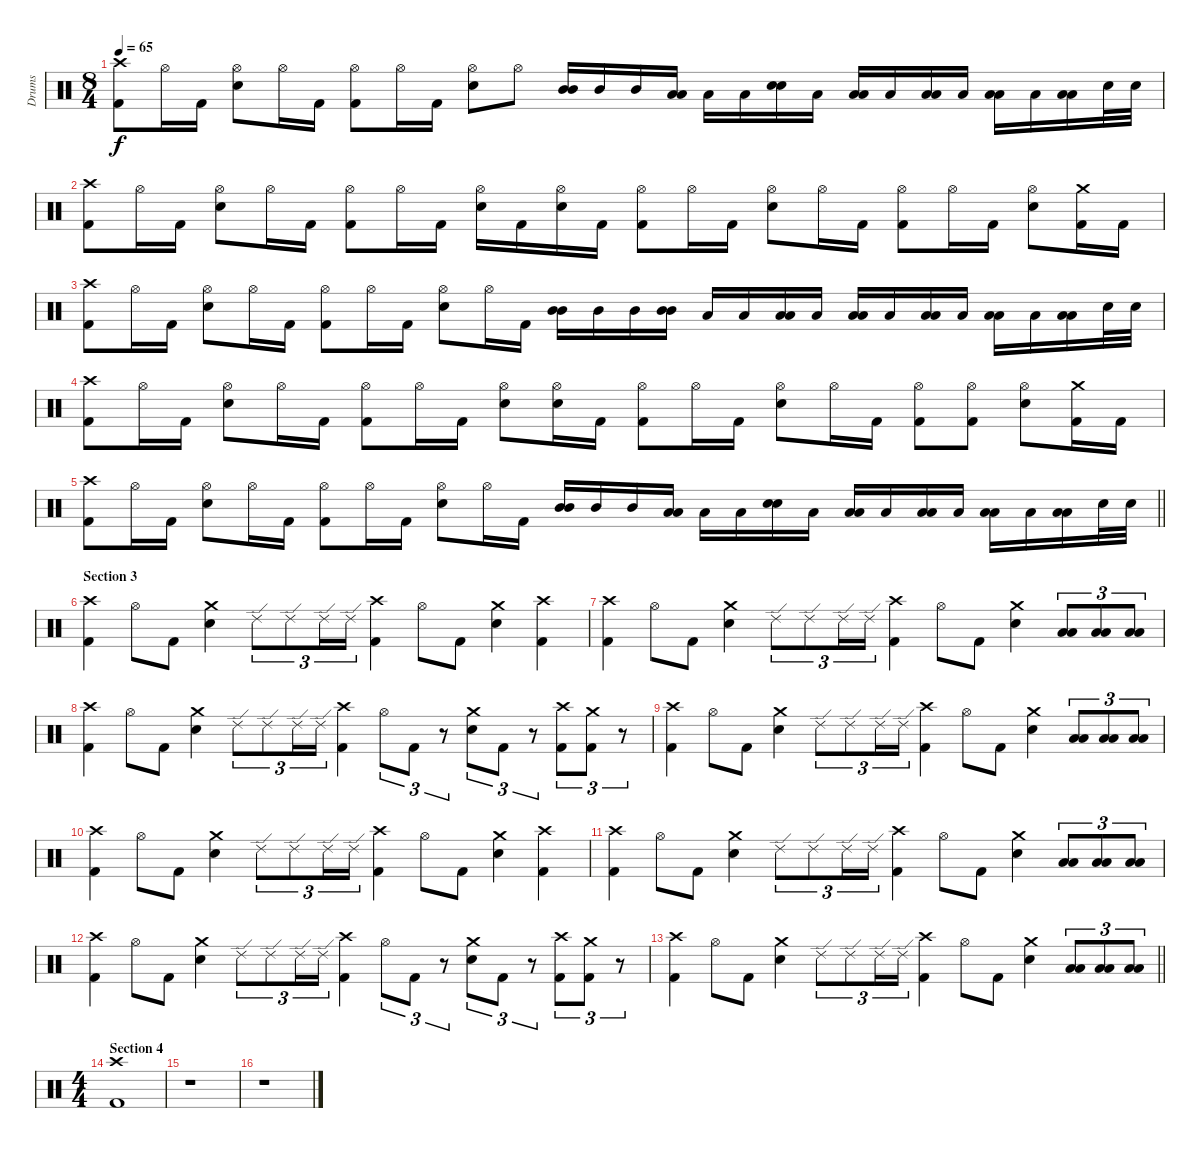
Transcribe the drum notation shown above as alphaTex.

\track ("Drums" "Drums") {instrument percussion}
\staff {score}
\articulation defaults
\ts (8 4)
\tempo 65
\clef neutral
\ks c
("Crash high (hit)" "Kick (hit) 2").8{dy f} "Hi-Hat (open)".16 "Kick (hit) 2".16 ("Hi-Hat (open)" "Electric Snare (hit)").8 "Hi-Hat (open)".16 "Kick (hit) 2".16 ("Hi-Hat (open)" "Kick (hit) 2").8 "Hi-Hat (open)".16 "Kick (hit) 2".16 ("Hi-Hat (open)" "Electric Snare (hit)").8 "Hi-Hat (open)".8 ("Mid Tom (hit)" "Mid Tom (hit)").16{bu 120} "Mid Tom (hit)".16 "Mid Tom (hit)".16 ("Low Tom (hit)" "Low Tom (hit)").16{bu 120} "Low Tom (hit)".16 "Low Tom (hit)".16 ("Electric Snare (hit)" "Electric Snare (hit)").16{bu 120} "Low Tom (hit)".16 ("Low Tom (hit)" "Low Tom (hit)").16{bu 120} "Low Tom (hit)".16 ("Low Tom (hit)" "Low Tom (hit)").16{bu 120} "Low Tom (hit)".16 ("Low Tom (hit)" "Low Tom (hit)").16{bu 120} "Low Tom (hit)".16 ("Low Tom (hit)" "Low Tom (hit)").16{bu 120} "Electric Snare (hit)".32 "Electric Snare (hit)".32 |
("Crash high (hit)" "Kick (hit) 2").8 "Hi-Hat (open)".16 "Kick (hit) 2".16 ("Hi-Hat (open)" "Electric Snare (hit)").8 "Hi-Hat (open)".16 "Kick (hit) 2".16 ("Hi-Hat (open)" "Kick (hit) 2").8 "Hi-Hat (open)".16 "Kick (hit) 2".16 ("Hi-Hat (open)" "Electric Snare (hit)").16 "Kick (hit) 2".16 ("Hi-Hat (open)" "Electric Snare (hit)").16 "Kick (hit) 2".16 ("Hi-Hat (open)" "Kick (hit) 2").8 "Hi-Hat (open)".16 "Kick (hit) 2".16 ("Hi-Hat (open)" "Electric Snare (hit)").8 "Hi-Hat (open)".16 "Kick (hit) 2".16 ("Hi-Hat (open)" "Kick (hit) 2").8 "Hi-Hat (open)".16 "Kick (hit) 2".16 ("Hi-Hat (open)" "Electric Snare (hit)").8 ("Crash medium (hit)" "Kick (hit) 2").16 "Kick (hit) 2".16 |
("Crash high (hit)" "Kick (hit) 2").8 "Hi-Hat (open)".16 "Kick (hit) 2".16 ("Hi-Hat (open)" "Electric Snare (hit)").8 "Hi-Hat (open)".16 "Kick (hit) 2".16 ("Hi-Hat (open)" "Kick (hit) 2").8 "Hi-Hat (open)".16 "Kick (hit) 2".16 ("Hi-Hat (open)" "Electric Snare (hit)").8 "Hi-Hat (open)".16 "Kick (hit) 2".16 ("Mid Tom (hit)" "Mid Tom (hit)").16{bu 120} "Mid Tom (hit)".16 "Mid Tom (hit)".16 ("Mid Tom (hit)" "Mid Tom (hit)").16{bu 120} "Low Tom (hit)".16 "Low Tom (hit)".16 ("Low Tom (hit)" "Low Tom (hit)").16{bu 120} "Low Tom (hit)".16 ("Low Tom (hit)" "Low Tom (hit)").16{bu 120} "Low Tom (hit)".16 ("Low Tom (hit)" "Low Tom (hit)").16{bu 120} "Low Tom (hit)".16 ("Low Tom (hit)" "Low Tom (hit)").16{bu 120} "Low Tom (hit)".16 ("Low Tom (hit)" "Low Tom (hit)").16{bu 120} "Electric Snare (hit)".32 "Electric Snare (hit)".32 |
("Crash high (hit)" "Kick (hit) 2").8 "Hi-Hat (open)".16 "Kick (hit) 2".16 ("Hi-Hat (open)" "Electric Snare (hit)").8 "Hi-Hat (open)".16 "Kick (hit) 2".16 ("Hi-Hat (open)" "Kick (hit) 2").8 "Hi-Hat (open)".16 "Kick (hit) 2".16 ("Hi-Hat (open)" "Electric Snare (hit)").8 ("Hi-Hat (open)" "Electric Snare (hit)").16 "Kick (hit) 2".16 ("Hi-Hat (open)" "Kick (hit) 2").8 "Hi-Hat (open)".16 "Kick (hit) 2".16 ("Hi-Hat (open)" "Electric Snare (hit)").8 "Hi-Hat (open)".16 "Kick (hit) 2".16 ("Hi-Hat (open)" "Kick (hit) 2").8 ("Hi-Hat (open)" "Kick (hit) 2").8 ("Hi-Hat (open)" "Electric Snare (hit)").8 ("Crash medium (hit)" "Kick (hit) 2").16 "Kick (hit) 2".16 |
\barLineRight lightlight
("Crash high (hit)" "Kick (hit) 2").8 "Hi-Hat (open)".16 "Kick (hit) 2".16 ("Hi-Hat (open)" "Electric Snare (hit)").8 "Hi-Hat (open)".16 "Kick (hit) 2".16 ("Hi-Hat (open)" "Kick (hit) 2").8 "Hi-Hat (open)".16 "Kick (hit) 2".16 ("Hi-Hat (open)" "Electric Snare (hit)").8 "Hi-Hat (open)".16 "Kick (hit) 2".16 ("Mid Tom (hit)" "Mid Tom (hit)").16{bu 120} "Mid Tom (hit)".16 "Mid Tom (hit)".16 ("Low Tom (hit)" "Low Tom (hit)").16{bu 120} "Low Tom (hit)".16 "Low Tom (hit)".16 ("Electric Snare (hit)" "Electric Snare (hit)").16{bu 120} "Low Tom (hit)".16 ("Low Tom (hit)" "Low Tom (hit)").16{bu 120} "Low Tom (hit)".16 ("Low Tom (hit)" "Low Tom (hit)").16{bu 120} "Low Tom (hit)".16 ("Low Tom (hit)" "Low Tom (hit)").16{bu 120} "Low Tom (hit)".16 ("Low Tom (hit)" "Low Tom (hit)").16{bu 120} "Electric Snare (hit)".32 "Electric Snare (hit)".32 |
\section ("" "Section 3")
("Crash high (hit)" "Kick (hit) 2").4 "Hi-Hat (open)".8 "Kick (hit) 2".8 ("Crash medium (hit)" "Electric Snare (hit)").4 "Ride (edge) 2".8{tu (3 2)} "Ride (edge) 2".8{tu (3 2)} "Ride (edge) 2".16{tu (3 2)} "Ride (edge) 2".16{tu (3 2)} ("Crash high (hit)" "Kick (hit) 2").4 "Hi-Hat (open)".8 "Kick (hit) 2".8 ("Crash medium (hit)" "Electric Snare (hit)").4 ("Crash high (hit)" "Kick (hit) 2").4 |
("Crash high (hit)" "Kick (hit) 2").4 "Hi-Hat (open)".8 "Kick (hit) 2".8 ("Crash medium (hit)" "Electric Snare (hit)").4 "Ride (edge) 2".8{tu (3 2)} "Ride (edge) 2".8{tu (3 2)} "Ride (edge) 2".16{tu (3 2)} "Ride (edge) 2".16{tu (3 2)} ("Crash high (hit)" "Kick (hit) 2").4 "Hi-Hat (open)".8 "Kick (hit) 2".8 ("Crash medium (hit)" "Electric Snare (hit)").4 ("Low Tom (hit)" "Low Tom (hit)").8{tu (3 2) bu 120} ("Low Tom (hit)" "Low Tom (hit)").8{tu (3 2) bu 120} ("Low Tom (hit)" "Low Tom (hit)").8{tu (3 2) bu 120} |
("Crash high (hit)" "Kick (hit) 2").4 "Hi-Hat (open)".8 "Kick (hit) 2".8 ("Crash medium (hit)" "Electric Snare (hit)").4 "Ride (edge) 2".8{tu (3 2)} "Ride (edge) 2".8{tu (3 2)} "Ride (edge) 2".16{tu (3 2)} "Ride (edge) 2".16{tu (3 2)} ("Crash high (hit)" "Kick (hit) 2").4 "Hi-Hat (open)".8{tu (3 2)} "Kick (hit) 2".8{tu (3 2)} r.8{tu (3 2)} ("Crash medium (hit)" "Electric Snare (hit)").8{tu (3 2)} "Kick (hit) 2".8{tu (3 2)} r.8{tu (3 2)} ("Crash high (hit)" "Kick (hit) 2").8{tu (3 2)} ("Crash medium (hit)" "Kick (hit) 2").8{tu (3 2)} r.8{tu (3 2)} |
("Crash high (hit)" "Kick (hit) 2").4 "Hi-Hat (open)".8 "Kick (hit) 2".8 ("Crash medium (hit)" "Electric Snare (hit)").4 "Ride (edge) 2".8{tu (3 2)} "Ride (edge) 2".8{tu (3 2)} "Ride (edge) 2".16{tu (3 2)} "Ride (edge) 2".16{tu (3 2)} ("Crash high (hit)" "Kick (hit) 2").4 "Hi-Hat (open)".8 "Kick (hit) 2".8 ("Crash medium (hit)" "Electric Snare (hit)").4 ("Low Tom (hit)" "Low Tom (hit)").8{tu (3 2) bu 120} ("Low Tom (hit)" "Low Tom (hit)").8{tu (3 2) bu 120} ("Low Tom (hit)" "Low Tom (hit)").8{tu (3 2) bu 120} |
("Crash high (hit)" "Kick (hit) 2").4 "Hi-Hat (open)".8 "Kick (hit) 2".8 ("Crash medium (hit)" "Electric Snare (hit)").4 "Ride (edge) 2".8{tu (3 2)} "Ride (edge) 2".8{tu (3 2)} "Ride (edge) 2".16{tu (3 2)} "Ride (edge) 2".16{tu (3 2)} ("Crash high (hit)" "Kick (hit) 2").4 "Hi-Hat (open)".8 "Kick (hit) 2".8 ("Crash medium (hit)" "Electric Snare (hit)").4 ("Crash high (hit)" "Kick (hit) 2").4 |
("Crash high (hit)" "Kick (hit) 2").4 "Hi-Hat (open)".8 "Kick (hit) 2".8 ("Crash medium (hit)" "Electric Snare (hit)").4 "Ride (edge) 2".8{tu (3 2)} "Ride (edge) 2".8{tu (3 2)} "Ride (edge) 2".16{tu (3 2)} "Ride (edge) 2".16{tu (3 2)} ("Crash high (hit)" "Kick (hit) 2").4 "Hi-Hat (open)".8 "Kick (hit) 2".8 ("Crash medium (hit)" "Electric Snare (hit)").4 ("Low Tom (hit)" "Low Tom (hit)").8{tu (3 2) bu 120} ("Low Tom (hit)" "Low Tom (hit)").8{tu (3 2) bu 120} ("Low Tom (hit)" "Low Tom (hit)").8{tu (3 2) bu 120} |
("Crash high (hit)" "Kick (hit) 2").4 "Hi-Hat (open)".8 "Kick (hit) 2".8 ("Crash medium (hit)" "Electric Snare (hit)").4 "Ride (edge) 2".8{tu (3 2)} "Ride (edge) 2".8{tu (3 2)} "Ride (edge) 2".16{tu (3 2)} "Ride (edge) 2".16{tu (3 2)} ("Crash high (hit)" "Kick (hit) 2").4 "Hi-Hat (open)".8{tu (3 2)} "Kick (hit) 2".8{tu (3 2)} r.8{tu (3 2)} ("Crash medium (hit)" "Electric Snare (hit)").8{tu (3 2)} "Kick (hit) 2".8{tu (3 2)} r.8{tu (3 2)} ("Crash high (hit)" "Kick (hit) 2").8{tu (3 2)} ("Crash medium (hit)" "Kick (hit) 2").8{tu (3 2)} r.8{tu (3 2)} |
\barLineRight lightlight
("Crash high (hit)" "Kick (hit) 2").4 "Hi-Hat (open)".8 "Kick (hit) 2".8 ("Crash medium (hit)" "Electric Snare (hit)").4 "Ride (edge) 2".8{tu (3 2)} "Ride (edge) 2".8{tu (3 2)} "Ride (edge) 2".16{tu (3 2)} "Ride (edge) 2".16{tu (3 2)} ("Crash high (hit)" "Kick (hit) 2").4 "Hi-Hat (open)".8 "Kick (hit) 2".8 ("Crash medium (hit)" "Electric Snare (hit)").4 ("Low Tom (hit)" "Low Tom (hit)").8{tu (3 2) bu 120} ("Low Tom (hit)" "Low Tom (hit)").8{tu (3 2) bu 120} ("Low Tom (hit)" "Low Tom (hit)").8{tu (3 2) bu 120} |
\ts (4 4)
\section ("" "Section 4")
("Crash high (hit)" "Kick (hit) 2").1 |
r.1 |
r.1
